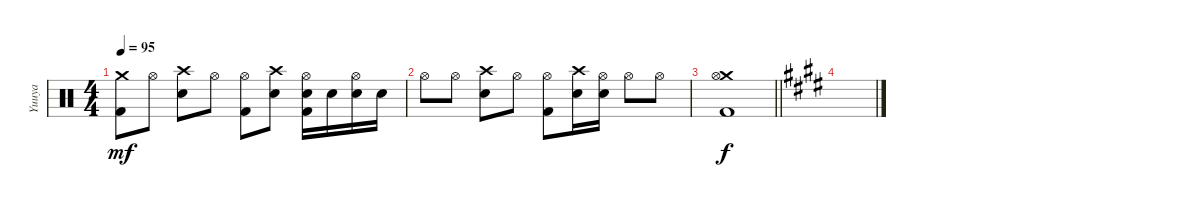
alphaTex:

\track ("Yuuya" "Yuuya") {instrument percussion}
\staff {score}
\articulation defaults
\ts (4 4)
\tempo 95
\clef neutral
\ks c
("Crash medium (hit)" "Kick (hit) 2").8{dy mf} "Hi-Hat (open)".8 ("Crash high (hit)" "Snare (hit) 2").8 "Hi-Hat (open)".8 ("Hi-Hat (open)" "Kick (hit) 2").8 ("Crash high (hit)" "Snare (hit) 2").8 ("Hi-Hat (open)" "Snare (hit) 2" "Kick (hit) 2").16 "Snare (hit) 2".16 ("Hi-Hat (open)" "Snare (hit) 2").16 "Snare (hit) 2".16 |
"Hi-Hat (open)".8 "Hi-Hat (open)".8 ("Crash high (hit)" "Snare (hit) 2").8 "Hi-Hat (open)".8 ("Hi-Hat (open)" "Kick (hit) 2").8 ("Crash high (hit)" "Snare (hit) 2").16 ("Hi-Hat (open)" "Snare (hit) 2").16 "Hi-Hat (open)".8 "Hi-Hat (open)".8 |
\barLineRight lightlight
("Crash medium (hit)" "Hi-Hat (open)" "Kick (hit) 2").1{dy f} |
\ks e
